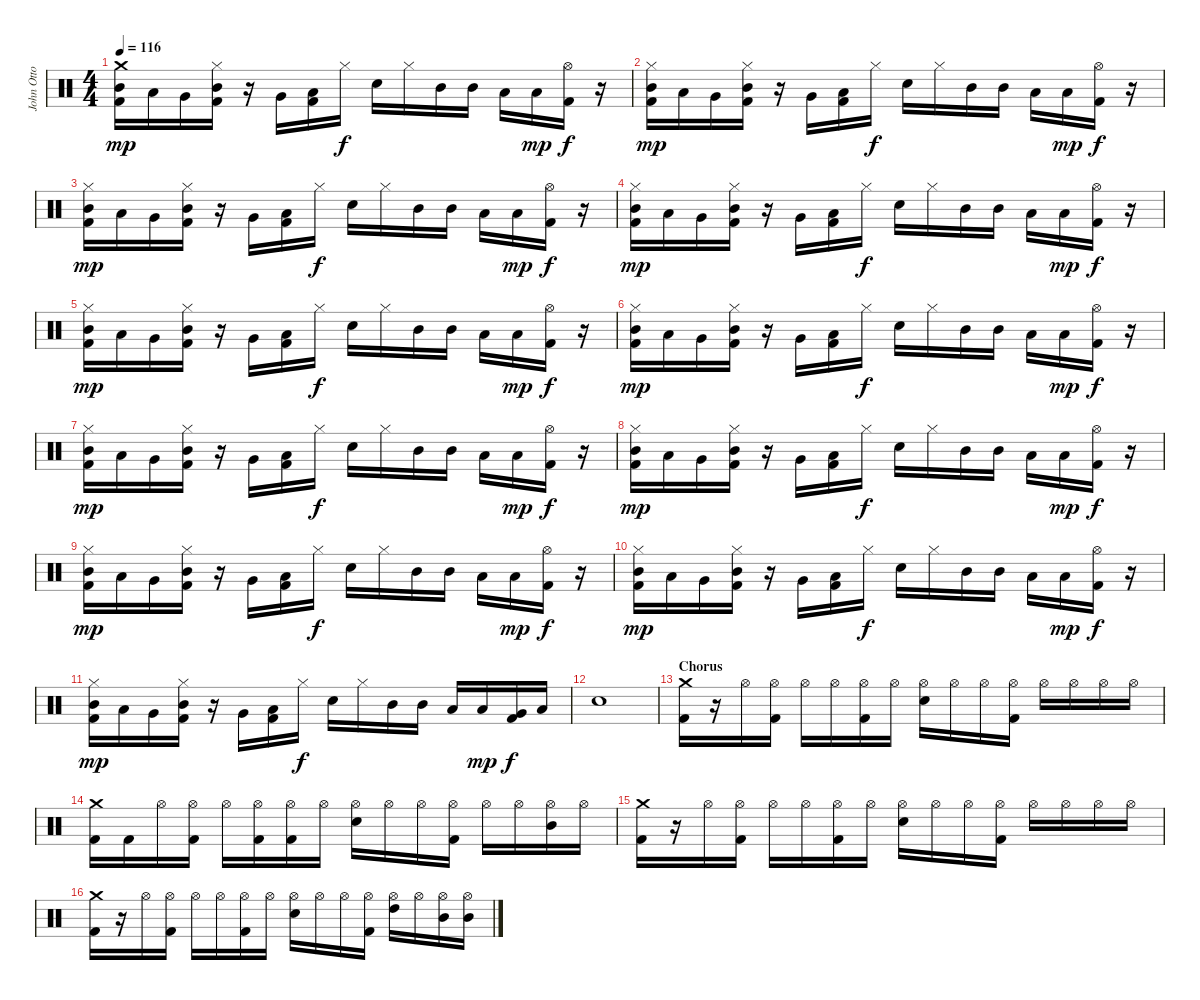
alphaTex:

\track ("John Otto - Drums" "John Otto ") {instrument percussion}
\staff {score}
\articulation defaults
\ts (4 4)
\tempo 116
\clef neutral
\ks c
("Crash medium (hit)" "Mid Tom (hit)" "Kick (hit) 2").16{dy mp} "Low Tom (hit)".16 "Very Low Tom (hit)".16 ("Hi-Hat (closed)" "Mid Tom (hit)" "Kick (hit) 2").16 r.16 "Very Low Tom (hit)".16 ("Low Tom (hit)" "Kick (hit) 2").16 "Hi-Hat (closed)".16{dy f} "Electric Snare (hit)".16 "Hi-Hat (closed)".16 "Mid Tom (hit)".16 "Mid Tom (hit)".16 "Low Tom (hit)".16 "Low Tom (hit)".16{dy mp} ("Hi-Hat (open)" "Kick (hit) 2").16{dy f} r.16 |
("Hi-Hat (closed)" "Mid Tom (hit)" "Kick (hit) 2").16{dy mp} "Low Tom (hit)".16 "Very Low Tom (hit)".16 ("Hi-Hat (closed)" "Mid Tom (hit)" "Kick (hit) 2").16 r.16 "Very Low Tom (hit)".16 ("Low Tom (hit)" "Kick (hit) 2").16 "Hi-Hat (closed)".16{dy f} "Electric Snare (hit)".16 "Hi-Hat (closed)".16 "Mid Tom (hit)".16 "Mid Tom (hit)".16 "Low Tom (hit)".16 "Low Tom (hit)".16{dy mp} ("Hi-Hat (open)" "Kick (hit) 2").16{dy f} r.16 |
("Hi-Hat (closed)" "Mid Tom (hit)" "Kick (hit) 2").16{dy mp} "Low Tom (hit)".16 "Very Low Tom (hit)".16 ("Hi-Hat (closed)" "Mid Tom (hit)" "Kick (hit) 2").16 r.16 "Very Low Tom (hit)".16 ("Low Tom (hit)" "Kick (hit) 2").16 "Hi-Hat (closed)".16{dy f} "Electric Snare (hit)".16 "Hi-Hat (closed)".16 "Mid Tom (hit)".16 "Mid Tom (hit)".16 "Low Tom (hit)".16 "Low Tom (hit)".16{dy mp} ("Hi-Hat (open)" "Kick (hit) 2").16{dy f} r.16 |
("Hi-Hat (closed)" "Mid Tom (hit)" "Kick (hit) 2").16{dy mp} "Low Tom (hit)".16 "Very Low Tom (hit)".16 ("Hi-Hat (closed)" "Mid Tom (hit)" "Kick (hit) 2").16 r.16 "Very Low Tom (hit)".16 ("Low Tom (hit)" "Kick (hit) 2").16 "Hi-Hat (closed)".16{dy f} "Electric Snare (hit)".16 "Hi-Hat (closed)".16 "Mid Tom (hit)".16 "Mid Tom (hit)".16 "Low Tom (hit)".16 "Low Tom (hit)".16{dy mp} ("Hi-Hat (open)" "Kick (hit) 2").16{dy f} r.16 |
("Hi-Hat (closed)" "Mid Tom (hit)" "Kick (hit) 2").16{dy mp} "Low Tom (hit)".16 "Very Low Tom (hit)".16 ("Hi-Hat (closed)" "Mid Tom (hit)" "Kick (hit) 2").16 r.16 "Very Low Tom (hit)".16 ("Low Tom (hit)" "Kick (hit) 2").16 "Hi-Hat (closed)".16{dy f} "Electric Snare (hit)".16 "Hi-Hat (closed)".16 "Mid Tom (hit)".16 "Mid Tom (hit)".16 "Low Tom (hit)".16 "Low Tom (hit)".16{dy mp} ("Hi-Hat (open)" "Kick (hit) 2").16{dy f} r.16 |
("Hi-Hat (closed)" "Mid Tom (hit)" "Kick (hit) 2").16{dy mp} "Low Tom (hit)".16 "Very Low Tom (hit)".16 ("Hi-Hat (closed)" "Mid Tom (hit)" "Kick (hit) 2").16 r.16 "Very Low Tom (hit)".16 ("Low Tom (hit)" "Kick (hit) 2").16 "Hi-Hat (closed)".16{dy f} "Electric Snare (hit)".16 "Hi-Hat (closed)".16 "Mid Tom (hit)".16 "Mid Tom (hit)".16 "Low Tom (hit)".16 "Low Tom (hit)".16{dy mp} ("Hi-Hat (open)" "Kick (hit) 2").16{dy f} r.16 |
("Hi-Hat (closed)" "Mid Tom (hit)" "Kick (hit) 2").16{dy mp} "Low Tom (hit)".16 "Very Low Tom (hit)".16 ("Hi-Hat (closed)" "Mid Tom (hit)" "Kick (hit) 2").16 r.16 "Very Low Tom (hit)".16 ("Low Tom (hit)" "Kick (hit) 2").16 "Hi-Hat (closed)".16{dy f} "Electric Snare (hit)".16 "Hi-Hat (closed)".16 "Mid Tom (hit)".16 "Mid Tom (hit)".16 "Low Tom (hit)".16 "Low Tom (hit)".16{dy mp} ("Hi-Hat (open)" "Kick (hit) 2").16{dy f} r.16 |
("Hi-Hat (closed)" "Mid Tom (hit)" "Kick (hit) 2").16{dy mp} "Low Tom (hit)".16 "Very Low Tom (hit)".16 ("Hi-Hat (closed)" "Mid Tom (hit)" "Kick (hit) 2").16 r.16 "Very Low Tom (hit)".16 ("Low Tom (hit)" "Kick (hit) 2").16 "Hi-Hat (closed)".16{dy f} "Electric Snare (hit)".16 "Hi-Hat (closed)".16 "Mid Tom (hit)".16 "Mid Tom (hit)".16 "Low Tom (hit)".16 "Low Tom (hit)".16{dy mp} ("Hi-Hat (open)" "Kick (hit) 2").16{dy f} r.16 |
("Hi-Hat (closed)" "Mid Tom (hit)" "Kick (hit) 2").16{dy mp} "Low Tom (hit)".16 "Very Low Tom (hit)".16 ("Hi-Hat (closed)" "Mid Tom (hit)" "Kick (hit) 2").16 r.16 "Very Low Tom (hit)".16 ("Low Tom (hit)" "Kick (hit) 2").16 "Hi-Hat (closed)".16{dy f} "Electric Snare (hit)".16 "Hi-Hat (closed)".16 "Mid Tom (hit)".16 "Mid Tom (hit)".16 "Low Tom (hit)".16 "Low Tom (hit)".16{dy mp} ("Hi-Hat (open)" "Kick (hit) 2").16{dy f} r.16 |
("Hi-Hat (closed)" "Mid Tom (hit)" "Kick (hit) 2").16{dy mp} "Low Tom (hit)".16 "Very Low Tom (hit)".16 ("Hi-Hat (closed)" "Mid Tom (hit)" "Kick (hit) 2").16 r.16 "Very Low Tom (hit)".16 ("Low Tom (hit)" "Kick (hit) 2").16 "Hi-Hat (closed)".16{dy f} "Electric Snare (hit)".16 "Hi-Hat (closed)".16 "Mid Tom (hit)".16 "Mid Tom (hit)".16 "Low Tom (hit)".16 "Low Tom (hit)".16{dy mp} ("Hi-Hat (open)" "Kick (hit) 2").16{dy f} r.16 |
("Hi-Hat (closed)" "Mid Tom (hit)" "Kick (hit) 2").16{dy mp} "Low Tom (hit)".16 "Very Low Tom (hit)".16 ("Hi-Hat (closed)" "Mid Tom (hit)" "Kick (hit) 2").16 r.16 "Very Low Tom (hit)".16 ("Low Tom (hit)" "Kick (hit) 2").16 "Hi-Hat (closed)".16{dy f} "Electric Snare (hit)".16 "Hi-Hat (closed)".16 "Mid Tom (hit)".16 "Mid Tom (hit)".16 "Low Tom (hit)".16 "Low Tom (hit)".16{dy mp} ("Very Low Tom (hit)" "Kick (hit) 2").16{dy f} "Low Floor Tom (hit)".16 |
"Electric Snare (hit)".1 |
\section ("" "Chorus")
("Crash medium (hit)" "Kick (hit) 2").16 r.16 "Hi-Hat (open)".16 ("Hi-Hat (open)" "Kick (hit) 2").16 "Hi-Hat (open)".16 "Hi-Hat (open)".16 ("Hi-Hat (open)" "Kick (hit) 2").16 "Hi-Hat (open)".16 ("Hi-Hat (open)" "Electric Snare (hit)").16 "Hi-Hat (open)".16 "Hi-Hat (open)".16 ("Hi-Hat (open)" "Kick (hit) 2").16 "Hi-Hat (open)".16 "Hi-Hat (open)".16 "Hi-Hat (open)".16 "Hi-Hat (open)".16 |
("Crash medium (hit)" "Kick (hit) 2").16 "Kick (hit) 2".16 "Hi-Hat (open)".16 ("Hi-Hat (open)" "Kick (hit) 2").16 "Hi-Hat (open)".16 ("Hi-Hat (open)" "Kick (hit) 2").16 ("Hi-Hat (open)" "Kick (hit) 2").16 "Hi-Hat (open)".16 ("Hi-Hat (open)" "Electric Snare (hit)").16 "Hi-Hat (open)".16 "Hi-Hat (open)".16 ("Hi-Hat (open)" "Kick (hit) 2").16 "Hi-Hat (open)".16 "Hi-Hat (open)".16 ("Hi-Hat (open)" "Mid Tom (hit)").16 "Hi-Hat (open)".16 |
("Crash medium (hit)" "Kick (hit) 2").16 r.16 "Hi-Hat (open)".16 ("Hi-Hat (open)" "Kick (hit) 2").16 "Hi-Hat (open)".16 "Hi-Hat (open)".16 ("Hi-Hat (open)" "Kick (hit) 2").16 "Hi-Hat (open)".16 ("Hi-Hat (open)" "Electric Snare (hit)").16 "Hi-Hat (open)".16 "Hi-Hat (open)".16 ("Hi-Hat (open)" "Kick (hit) 2").16 "Hi-Hat (open)".16 "Hi-Hat (open)".16 "Hi-Hat (open)".16 "Hi-Hat (open)".16 |
("Crash medium (hit)" "Kick (hit) 2").16 r.16 "Hi-Hat (open)".16 ("Hi-Hat (open)" "Kick (hit) 2").16 "Hi-Hat (open)".16 "Hi-Hat (open)".16 ("Hi-Hat (open)" "Kick (hit) 2").16 "Hi-Hat (open)".16 ("Hi-Hat (open)" "Electric Snare (hit)").16 "Hi-Hat (open)".16 "Hi-Hat (open)".16 ("Hi-Hat (open)" "Kick (hit) 2").16 ("Hi-Hat (open)" "High Tom (hit)").16 "Hi-Hat (open)".16 ("Hi-Hat (open)" "Mid Tom (hit)").16 ("Hi-Hat (open)" "Mid Tom (hit)").16
